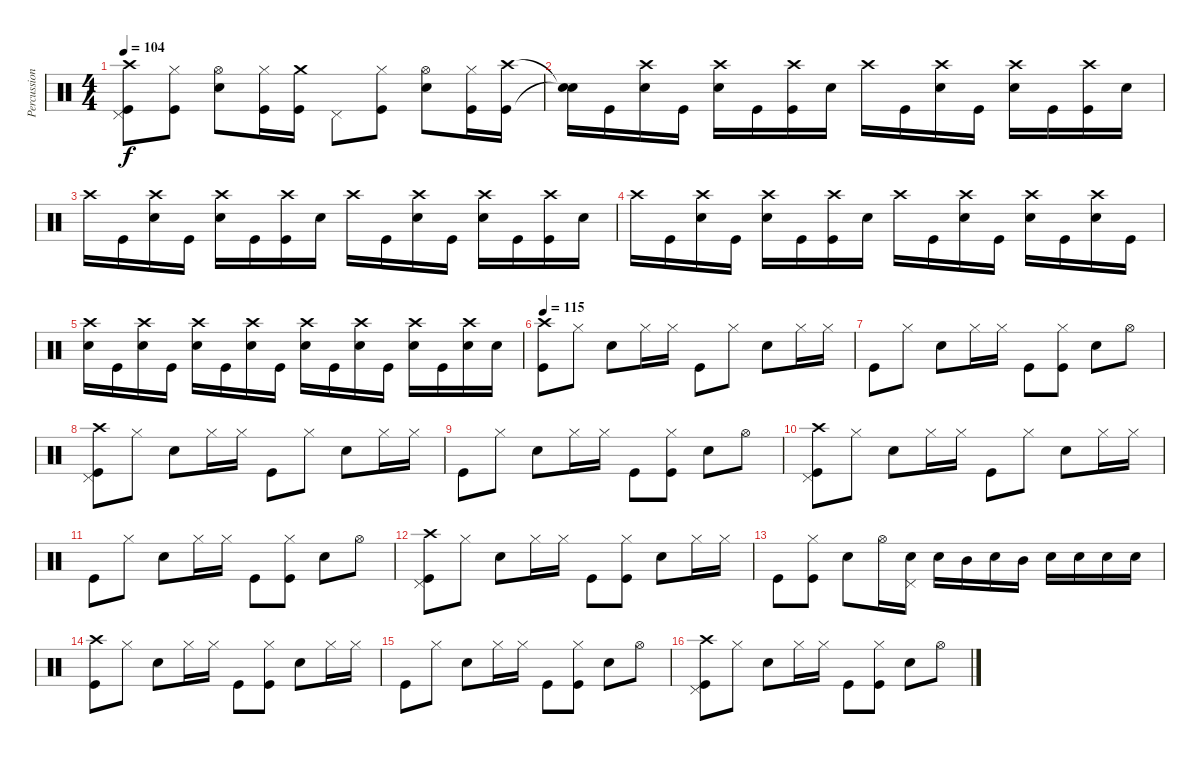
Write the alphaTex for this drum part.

\track ("Percussion" "Percussion") {instrument percussion}
\staff {score}
\articulation defaults
\ts (4 4)
\tempo 104
\clef neutral
\ks c
("Crash high (hit)"{t} "Pedal Hi-Hat (hit)" "Kick (hit)"{t}).8{dy f} ("Hi-Hat (closed)" "Kick (hit)").8 ("Hi-Hat (open)" "Snare (hit) 2").8 ("Hi-Hat (closed)" "Kick (hit)").16 ("Crash medium (hit)" "Kick (hit)").16 "Pedal Hi-Hat (hit)".8 ("Hi-Hat (closed)" "Kick (hit)").8 ("Hi-Hat (open)" "Snare (hit) 2").8 ("Hi-Hat (closed)" "Kick (hit)").16 ("Crash high (hit)" "Kick (hit)").16 |
("Snare (hit)"{t} "Snare (hit)"{t}).16 "Kick (hit)".16 ("Crash high (hit)" "Snare (hit) 2").16 "Kick (hit)".16 ("Crash high (hit)" "Snare (hit) 2").16 "Kick (hit)".16 ("Crash high (hit)" "Kick (hit)").16 "Snare (hit) 2".16 "Crash high (hit)".16 "Kick (hit)".16 ("Crash high (hit)" "Snare (hit) 2").16 "Kick (hit)".16 ("Crash high (hit)" "Snare (hit) 2").16 "Kick (hit)".16 ("Crash high (hit)" "Kick (hit)").16 "Snare (hit) 2".16 |
"Crash high (hit)".16 "Kick (hit)".16 ("Crash high (hit)" "Snare (hit) 2").16 "Kick (hit)".16 ("Crash high (hit)" "Snare (hit) 2").16 "Kick (hit)".16 ("Crash high (hit)" "Kick (hit)").16 "Snare (hit) 2".16 "Crash high (hit)".16 "Kick (hit)".16 ("Crash high (hit)" "Snare (hit) 2").16 "Kick (hit)".16 ("Crash high (hit)" "Snare (hit) 2").16 "Kick (hit)".16 ("Crash high (hit)" "Kick (hit)").16 "Snare (hit) 2".16 |
"Crash high (hit)".16 "Kick (hit)".16 ("Crash high (hit)" "Snare (hit) 2").16 "Kick (hit)".16 ("Crash high (hit)" "Snare (hit) 2").16 "Kick (hit)".16 ("Crash high (hit)" "Kick (hit)").16 "Snare (hit) 2".16 "Crash high (hit)".16 "Kick (hit)".16 ("Crash high (hit)" "Snare (hit) 2").16 "Kick (hit)".16 ("Crash high (hit)" "Snare (hit) 2").16 "Kick (hit)".16 ("Crash high (hit)" "Snare (hit) 2").16 "Kick (hit)".16 |
("Crash high (hit)" "Snare (hit) 2").16 "Kick (hit)".16 ("Crash high (hit)" "Snare (hit) 2").16 "Kick (hit)".16 ("Crash high (hit)" "Snare (hit) 2").16 "Kick (hit)".16 ("Crash high (hit)" "Snare (hit) 2").16 "Kick (hit)".16 ("Crash high (hit)" "Snare (hit) 2").16 "Kick (hit)".16 ("Crash high (hit)" "Snare (hit) 2").16 "Kick (hit)".16 ("Crash high (hit)" "Snare (hit) 2").16 "Kick (hit)".16 ("Crash high (hit)" "Snare (hit) 2").16 "Snare (hit) 2".16 |
\tempo 115
("Crash high (hit)" "Kick (hit)").8 "Hi-Hat (closed)".8 "Snare (hit) 2".8 "Hi-Hat (closed)".16 "Hi-Hat (closed)".16 "Kick (hit)".8 "Hi-Hat (closed)".8 "Snare (hit) 2".8 "Hi-Hat (closed)".16 "Hi-Hat (closed)".16 |
"Kick (hit)".8 "Hi-Hat (closed)".8 "Snare (hit) 2".8 "Hi-Hat (closed)".16 "Hi-Hat (closed)".16 "Kick (hit)".8 ("Hi-Hat (closed)" "Kick (hit)").8 "Snare (hit) 2".8 "Hi-Hat (open)".8 |
("Crash high (hit)" "Pedal Hi-Hat (hit)" "Kick (hit)").8 "Hi-Hat (closed)".8 "Snare (hit) 2".8 "Hi-Hat (closed)".16 "Hi-Hat (closed)".16 "Kick (hit)".8 "Hi-Hat (closed)".8 "Snare (hit) 2".8 "Hi-Hat (closed)".16 "Hi-Hat (closed)".16 |
"Kick (hit)".8 "Hi-Hat (closed)".8 "Snare (hit) 2".8 "Hi-Hat (closed)".16 "Hi-Hat (closed)".16 "Kick (hit)".8 ("Hi-Hat (closed)" "Kick (hit)").8 "Snare (hit) 2".8 "Hi-Hat (open)".8 |
("Crash high (hit)" "Pedal Hi-Hat (hit)" "Kick (hit)").8 "Hi-Hat (closed)".8 "Snare (hit) 2".8 "Hi-Hat (closed)".16 "Hi-Hat (closed)".16 "Kick (hit)".8 "Hi-Hat (closed)".8 "Snare (hit) 2".8 "Hi-Hat (closed)".16 "Hi-Hat (closed)".16 |
"Kick (hit)".8 "Hi-Hat (closed)".8 "Snare (hit) 2".8 "Hi-Hat (closed)".16 "Hi-Hat (closed)".16 "Kick (hit)".8 ("Hi-Hat (closed)" "Kick (hit)").8 "Snare (hit) 2".8 "Hi-Hat (open)".8 |
("Crash high (hit)" "Pedal Hi-Hat (hit)" "Kick (hit)").8 "Hi-Hat (closed)".8 "Snare (hit) 2".8 "Hi-Hat (closed)".16 "Hi-Hat (closed)".16 "Kick (hit)".8 ("Hi-Hat (closed)" "Kick (hit)").8 "Snare (hit) 2".8 "Hi-Hat (closed)".16 "Hi-Hat (closed)".16 |
"Kick (hit)".8 ("Hi-Hat (closed)" "Kick (hit)").8 "Snare (hit) 2".8 "Hi-Hat (open)".16 ("Snare (hit) 2" "Pedal Hi-Hat (hit)").16 "Snare (hit) 2".16 "Mid Tom (hit)".16 "Snare (hit) 2".16 "Mid Tom (hit)".16 "Snare (hit) 2".16 "Snare (hit) 2".16 "Snare (hit) 2".16 "Snare (hit) 2".16 |
("Crash high (hit)" "Kick (hit)").8 "Hi-Hat (closed)".8 "Snare (hit) 2".8 "Hi-Hat (closed)".16 "Hi-Hat (closed)".16 "Kick (hit)".8 ("Hi-Hat (closed)" "Kick (hit)").8 "Snare (hit) 2".8 "Hi-Hat (closed)".16 "Hi-Hat (closed)".16 |
"Kick (hit)".8 "Hi-Hat (closed)".8 "Snare (hit) 2".8 "Hi-Hat (closed)".16 "Hi-Hat (closed)".16 "Kick (hit)".8 ("Hi-Hat (closed)" "Kick (hit)").8 "Snare (hit) 2".8 "Hi-Hat (open)".8 |
("Crash high (hit)" "Pedal Hi-Hat (hit)" "Kick (hit)").8 "Hi-Hat (closed)".8 "Snare (hit) 2".8 "Hi-Hat (closed)".16 "Hi-Hat (closed)".16 "Kick (hit)".8 ("Hi-Hat (closed)" "Kick (hit)").8 "Snare (hit) 2".8 "Hi-Hat (open)".8
